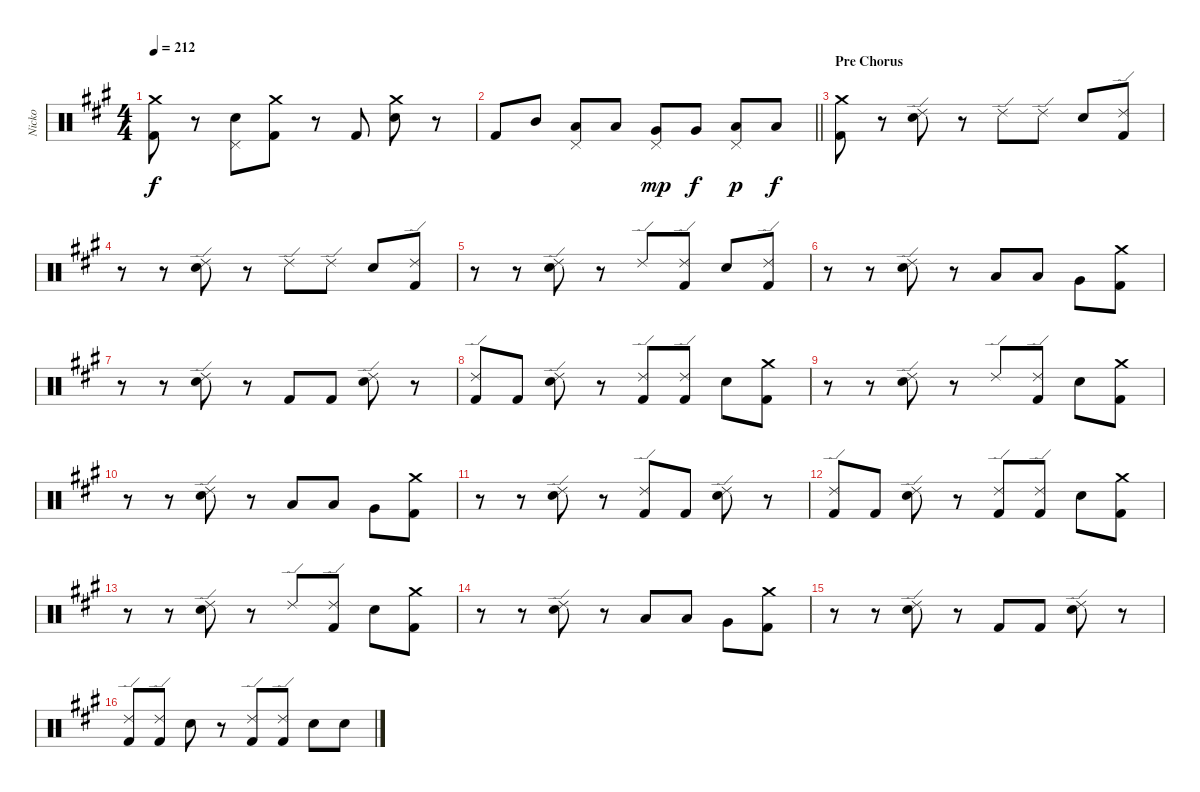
\track ("Nicko" "Nicko") {instrument percussion}
\staff {score}
\articulation defaults
\ts (4 4)
\tempo 212
\clef neutral
\ks a
("Crash medium (hit)" "Kick (hit) 2").8{dy f} r.8 ("Pedal Hi-Hat (hit)" "Snare (hit) 2").8 ("Crash medium (hit)" "Kick (hit) 2").8 r.8 "Kick (hit) 2".8 ("Crash medium (hit)" "Snare (hit) 2").8 r.8 |
\barLineRight lightlight "Kick (hit) 2".8 "Mid Tom (hit)".8
("Pedal Hi-Hat (hit)" "Low Tom (hit)").8 "Low Tom (hit)".8 ("Pedal Hi-Hat (hit)" "Very Low Tom (hit)").8{dy mp} "Very Low Tom (hit)".8{dy f} ("Pedal Hi-Hat (hit)" "Low Floor Tom (hit)").8{dy p} "Low Floor Tom (hit)".8{dy f} |
\section ("" "Pre Chorus")
("Crash medium (hit)" "Kick (hit) 2").8 r.8 ("Ride (edge) 2" "Snare (hit) 2").8 r.8 "Ride (edge) 2".8 "Ride (edge) 2".8 "Snare (hit) 2".8 ("Ride (edge) 2" "Kick (hit) 2").8 |
r.8 r.8 ("Ride (edge) 2" "Snare (hit) 2").8 r.8 "Ride (edge) 2".8 "Ride (edge) 2".8 "Snare (hit) 2".8 ("Ride (edge) 2" "Kick (hit) 2").8 |
r.8 r.8 ("Ride (edge) 2" "Snare (hit) 2").8 r.8 "Ride (edge) 2".8 ("Ride (edge) 2" "Kick (hit) 2").8 "Snare (hit) 2".8 ("Ride (edge) 2" "Kick (hit) 2").8 |
r.8 r.8 ("Ride (edge) 2" "Snare (hit) 2").8 r.8 "Low Tom (hit)".8 "Low Tom (hit)".8 "Very Low Tom (hit)".8 ("Crash medium (hit)" "Kick (hit) 2").8 |
r.8 r.8 ("Ride (edge) 2" "Snare (hit) 2").8 r.8 "Kick (hit) 2".8 "Kick (hit) 2".8 ("Ride (edge) 2" "Snare (hit) 2").8 r.8 |
("Ride (edge) 2" "Kick (hit) 2").8 "Kick (hit) 2".8 ("Ride (edge) 2" "Snare (hit) 2").8 r.8 ("Ride (edge) 2" "Kick (hit) 2").8 ("Ride (edge) 2" "Kick (hit) 2").8 "Snare (hit) 2".8 ("Crash medium (hit)" "Kick (hit) 2").8 |
r.8 r.8 ("Ride (edge) 2" "Snare (hit) 2").8 r.8 "Ride (edge) 2".8 ("Ride (edge) 2" "Kick (hit) 2").8 "Snare (hit) 2".8 ("Crash medium (hit)" "Kick (hit) 2").8 |
r.8 r.8 ("Ride (edge) 2" "Snare (hit) 2").8 r.8 "Low Tom (hit)".8 "Low Tom (hit)".8 "Very Low Tom (hit)".8 ("Crash medium (hit)" "Kick (hit) 2").8 |
r.8 r.8 ("Ride (edge) 2" "Snare (hit) 2").8 r.8 ("Ride (edge) 2" "Kick (hit) 2").8 "Kick (hit) 2".8 ("Ride (edge) 2" "Snare (hit) 2").8 r.8 |
("Ride (edge) 2" "Kick (hit) 2").8 "Kick (hit) 2".8 ("Ride (edge) 2" "Snare (hit) 2").8 r.8 ("Ride (edge) 2" "Kick (hit) 2").8 ("Ride (edge) 2" "Kick (hit) 2").8 "Snare (hit) 2".8 ("Crash medium (hit)" "Kick (hit) 2").8 |
r.8 r.8 ("Ride (edge) 2" "Snare (hit) 2").8 r.8 "Ride (edge) 2".8 ("Ride (edge) 2" "Kick (hit) 2").8 "Snare (hit) 2".8 ("Crash medium (hit)" "Kick (hit) 2").8 |
r.8 r.8 ("Ride (edge) 2" "Snare (hit) 2").8 r.8 "Low Tom (hit)".8 "Low Tom (hit)".8 "Very Low Tom (hit)".8 ("Crash medium (hit)" "Kick (hit) 2").8 |
r.8 r.8 ("Ride (edge) 2" "Snare (hit) 2").8 r.8 "Kick (hit) 2".8 "Kick (hit) 2".8 ("Ride (edge) 2" "Snare (hit) 2").8 r.8 |
("Ride (edge) 2" "Kick (hit) 2").8 ("Ride (edge) 2" "Kick (hit) 2").8 "Snare (hit) 2".8 r.8 ("Ride (edge) 2" "Kick (hit) 2").8 ("Ride (edge) 2" "Kick (hit) 2").8 "Snare (hit) 2".8 "Snare (hit) 2".8
